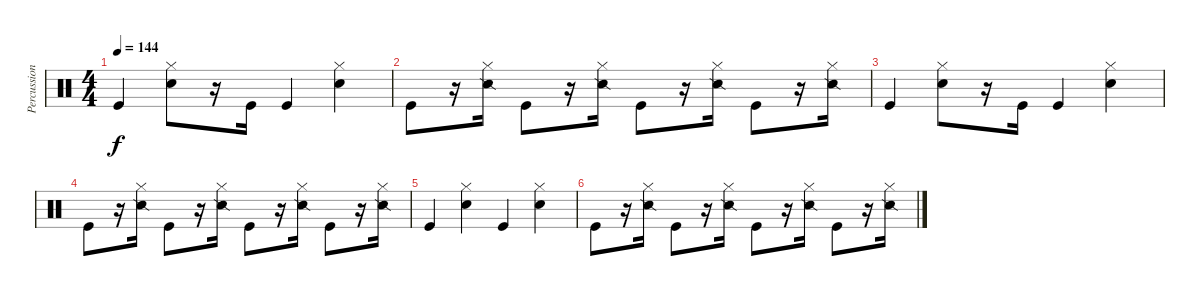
\track ("Percussions" "Percussion") {instrument percussion}
\staff {score}
\articulation defaults
\ts (4 4)
\tempo 144
\clef neutral
\ks c "Kick (hit)".4{dy f}
("Hi-Hat (closed)" "Electric Snare (hit)").8 r.16 "Kick (hit)".16 "Kick (hit)".4 ("Hi-Hat (closed)" "Electric Snare (hit)").4 |
"Kick (hit)".8 r.16 ("Hi-Hat (closed)" "Snare (side stick) 2").16 "Kick (hit)".8 r.16 ("Hi-Hat (closed)" "Snare (side stick) 2").16 "Kick (hit)".8 r.16 ("Hi-Hat (closed)" "Snare (side stick) 2").16 "Kick (hit)".8 r.16 ("Hi-Hat (closed)" "Snare (side stick) 2").16 |
"Kick (hit)".4 ("Hi-Hat (closed)" "Electric Snare (hit)").8 r.16 "Kick (hit)".16 "Kick (hit)".4 ("Hi-Hat (closed)" "Electric Snare (hit)").4 |
"Kick (hit)".8 r.16 ("Hi-Hat (closed)" "Snare (side stick) 2").16 "Kick (hit)".8 r.16 ("Hi-Hat (closed)" "Snare (side stick) 2").16 "Kick (hit)".8 r.16 ("Hi-Hat (closed)" "Snare (side stick) 2").16 "Kick (hit)".8 r.16 ("Hi-Hat (closed)" "Snare (side stick) 2").16 |
"Kick (hit)".4 ("Hi-Hat (closed)" "Electric Snare (hit)").4 "Kick (hit)".4 ("Hi-Hat (closed)" "Electric Snare (hit)").4 |
"Kick (hit)".8 r.16 ("Hi-Hat (closed)" "Snare (side stick) 2").16 "Kick (hit)".8 r.16 ("Hi-Hat (closed)" "Snare (side stick) 2").16 "Kick (hit)".8 r.16 ("Hi-Hat (closed)" "Snare (side stick) 2").16 "Kick (hit)".8 r.16 ("Hi-Hat (closed)" "Snare (side stick) 2").16
